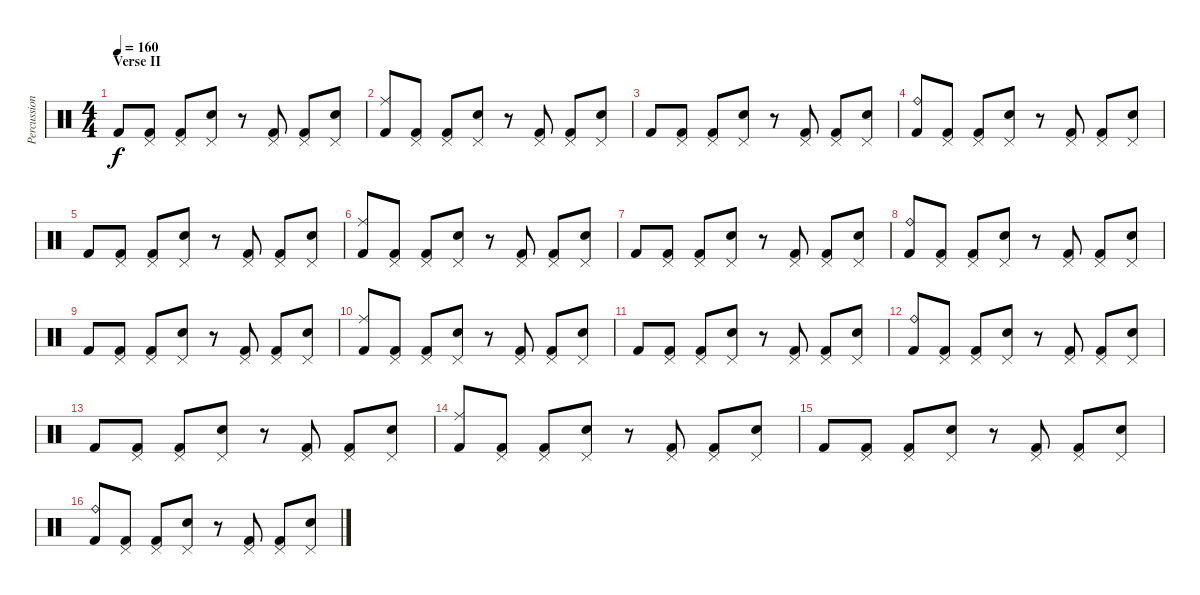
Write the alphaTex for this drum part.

\track ("Percussion" "Percussion") {instrument percussion}
\staff {score}
\articulation defaults
\ts (4 4)
\section ("" "Verse II")
\tempo 160
\clef neutral
\ks c "Kick (hit) 2".8{dy f}
("Pedal Hi-Hat (hit)" "Kick (hit) 2").8 ("Pedal Hi-Hat (hit)" "Kick (hit) 2").8 ("Pedal Hi-Hat (hit)" "Electric Snare (hit)").8 r.8 ("Pedal Hi-Hat (hit)" "Kick (hit) 2").8 ("Pedal Hi-Hat (hit)" "Kick (hit) 2").8 ("Pedal Hi-Hat (hit)" "Electric Snare (hit)").8 |
("Ride (middle)" "Kick (hit) 2").8 ("Pedal Hi-Hat (hit)" "Kick (hit) 2").8 ("Pedal Hi-Hat (hit)" "Kick (hit) 2").8 ("Pedal Hi-Hat (hit)" "Electric Snare (hit)").8 r.8 ("Pedal Hi-Hat (hit)" "Kick (hit) 2").8 ("Pedal Hi-Hat (hit)" "Kick (hit) 2").8 ("Pedal Hi-Hat (hit)" "Electric Snare (hit)").8 |
"Kick (hit) 2".8 ("Pedal Hi-Hat (hit)" "Kick (hit) 2").8 ("Pedal Hi-Hat (hit)" "Kick (hit) 2").8 ("Pedal Hi-Hat (hit)" "Electric Snare (hit)").8 r.8 ("Pedal Hi-Hat (hit)" "Kick (hit) 2").8 ("Pedal Hi-Hat (hit)" "Kick (hit) 2").8 ("Pedal Hi-Hat (hit)" "Electric Snare (hit)").8 |
("Ride (bell)" "Kick (hit) 2").8 ("Pedal Hi-Hat (hit)" "Kick (hit) 2").8 ("Pedal Hi-Hat (hit)" "Kick (hit) 2").8 ("Pedal Hi-Hat (hit)" "Electric Snare (hit)").8 r.8 ("Pedal Hi-Hat (hit)" "Kick (hit) 2").8 ("Pedal Hi-Hat (hit)" "Kick (hit) 2").8 ("Pedal Hi-Hat (hit)" "Electric Snare (hit)").8 |
"Kick (hit) 2".8 ("Pedal Hi-Hat (hit)" "Kick (hit) 2").8 ("Pedal Hi-Hat (hit)" "Kick (hit) 2").8 ("Pedal Hi-Hat (hit)" "Electric Snare (hit)").8 r.8 ("Pedal Hi-Hat (hit)" "Kick (hit) 2").8 ("Pedal Hi-Hat (hit)" "Kick (hit) 2").8 ("Pedal Hi-Hat (hit)" "Electric Snare (hit)").8 |
("Ride (middle)" "Kick (hit) 2").8 ("Pedal Hi-Hat (hit)" "Kick (hit) 2").8 ("Pedal Hi-Hat (hit)" "Kick (hit) 2").8 ("Pedal Hi-Hat (hit)" "Electric Snare (hit)").8 r.8 ("Pedal Hi-Hat (hit)" "Kick (hit) 2").8 ("Pedal Hi-Hat (hit)" "Kick (hit) 2").8 ("Pedal Hi-Hat (hit)" "Electric Snare (hit)").8 |
"Kick (hit) 2".8 ("Pedal Hi-Hat (hit)" "Kick (hit) 2").8 ("Pedal Hi-Hat (hit)" "Kick (hit) 2").8 ("Pedal Hi-Hat (hit)" "Electric Snare (hit)").8 r.8 ("Pedal Hi-Hat (hit)" "Kick (hit) 2").8 ("Pedal Hi-Hat (hit)" "Kick (hit) 2").8 ("Pedal Hi-Hat (hit)" "Electric Snare (hit)").8 |
("Ride (bell)" "Kick (hit) 2").8 ("Pedal Hi-Hat (hit)" "Kick (hit) 2").8 ("Pedal Hi-Hat (hit)" "Kick (hit) 2").8 ("Pedal Hi-Hat (hit)" "Electric Snare (hit)").8 r.8 ("Pedal Hi-Hat (hit)" "Kick (hit) 2").8 ("Pedal Hi-Hat (hit)" "Kick (hit) 2").8 ("Pedal Hi-Hat (hit)" "Electric Snare (hit)").8 |
"Kick (hit) 2".8 ("Pedal Hi-Hat (hit)" "Kick (hit) 2").8 ("Pedal Hi-Hat (hit)" "Kick (hit) 2").8 ("Pedal Hi-Hat (hit)" "Electric Snare (hit)").8 r.8 ("Pedal Hi-Hat (hit)" "Kick (hit) 2").8 ("Pedal Hi-Hat (hit)" "Kick (hit) 2").8 ("Pedal Hi-Hat (hit)" "Electric Snare (hit)").8 |
("Ride (middle)" "Kick (hit) 2").8 ("Pedal Hi-Hat (hit)" "Kick (hit) 2").8 ("Pedal Hi-Hat (hit)" "Kick (hit) 2").8 ("Pedal Hi-Hat (hit)" "Electric Snare (hit)").8 r.8 ("Pedal Hi-Hat (hit)" "Kick (hit) 2").8 ("Pedal Hi-Hat (hit)" "Kick (hit) 2").8 ("Pedal Hi-Hat (hit)" "Electric Snare (hit)").8 |
"Kick (hit) 2".8 ("Pedal Hi-Hat (hit)" "Kick (hit) 2").8 ("Pedal Hi-Hat (hit)" "Kick (hit) 2").8 ("Pedal Hi-Hat (hit)" "Electric Snare (hit)").8 r.8 ("Pedal Hi-Hat (hit)" "Kick (hit) 2").8 ("Pedal Hi-Hat (hit)" "Kick (hit) 2").8 ("Pedal Hi-Hat (hit)" "Electric Snare (hit)").8 |
("Ride (bell)" "Kick (hit) 2").8 ("Pedal Hi-Hat (hit)" "Kick (hit) 2").8 ("Pedal Hi-Hat (hit)" "Kick (hit) 2").8 ("Pedal Hi-Hat (hit)" "Electric Snare (hit)").8 r.8 ("Pedal Hi-Hat (hit)" "Kick (hit) 2").8 ("Pedal Hi-Hat (hit)" "Kick (hit) 2").8 ("Pedal Hi-Hat (hit)" "Electric Snare (hit)").8 |
"Kick (hit) 2".8 ("Pedal Hi-Hat (hit)" "Kick (hit) 2").8 ("Pedal Hi-Hat (hit)" "Kick (hit) 2").8 ("Pedal Hi-Hat (hit)" "Electric Snare (hit)").8 r.8 ("Pedal Hi-Hat (hit)" "Kick (hit) 2").8 ("Pedal Hi-Hat (hit)" "Kick (hit) 2").8 ("Pedal Hi-Hat (hit)" "Electric Snare (hit)").8 |
("Ride (middle)" "Kick (hit) 2").8 ("Pedal Hi-Hat (hit)" "Kick (hit) 2").8 ("Pedal Hi-Hat (hit)" "Kick (hit) 2").8 ("Pedal Hi-Hat (hit)" "Electric Snare (hit)").8 r.8 ("Pedal Hi-Hat (hit)" "Kick (hit) 2").8 ("Pedal Hi-Hat (hit)" "Kick (hit) 2").8 ("Pedal Hi-Hat (hit)" "Electric Snare (hit)").8 |
"Kick (hit) 2".8 ("Pedal Hi-Hat (hit)" "Kick (hit) 2").8 ("Pedal Hi-Hat (hit)" "Kick (hit) 2").8 ("Pedal Hi-Hat (hit)" "Electric Snare (hit)").8 r.8 ("Pedal Hi-Hat (hit)" "Kick (hit) 2").8 ("Pedal Hi-Hat (hit)" "Kick (hit) 2").8 ("Pedal Hi-Hat (hit)" "Electric Snare (hit)").8 |
("Ride (bell)" "Kick (hit) 2").8 ("Pedal Hi-Hat (hit)" "Kick (hit) 2").8 ("Pedal Hi-Hat (hit)" "Kick (hit) 2").8 ("Pedal Hi-Hat (hit)" "Electric Snare (hit)").8 r.8 ("Pedal Hi-Hat (hit)" "Kick (hit) 2").8 ("Pedal Hi-Hat (hit)" "Kick (hit) 2").8 ("Pedal Hi-Hat (hit)" "Electric Snare (hit)").8
